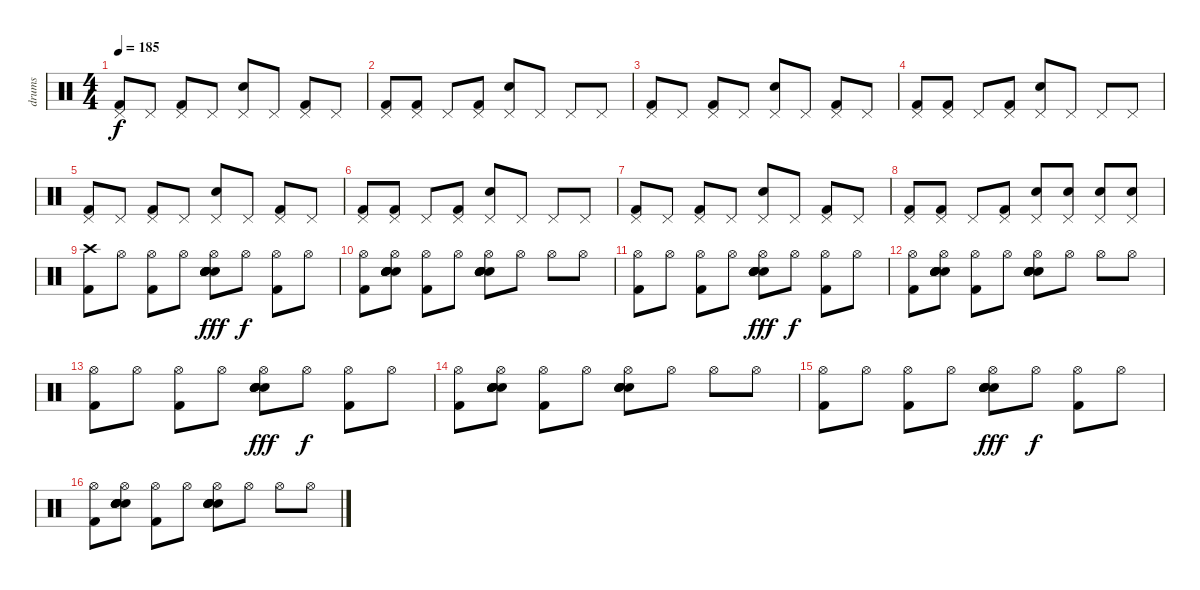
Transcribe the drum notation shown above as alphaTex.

\track ("drums" "drums") {instrument percussion}
\staff {score}
\articulation defaults
\ts (4 4)
\tempo 185
\clef neutral
\ks c
("Pedal Hi-Hat (hit)" "Kick (hit) 2").8{dy f} "Pedal Hi-Hat (hit)".8 ("Pedal Hi-Hat (hit)" "Kick (hit) 2").8 "Pedal Hi-Hat (hit)".8 ("Pedal Hi-Hat (hit)" "Electric Snare (hit)").8 "Pedal Hi-Hat (hit)".8 ("Pedal Hi-Hat (hit)" "Kick (hit) 2").8 "Pedal Hi-Hat (hit)".8 |
("Pedal Hi-Hat (hit)" "Kick (hit) 2").8 ("Pedal Hi-Hat (hit)" "Kick (hit) 2").8 "Pedal Hi-Hat (hit)".8 ("Pedal Hi-Hat (hit)" "Kick (hit) 2").8 ("Pedal Hi-Hat (hit)" "Electric Snare (hit)").8 "Pedal Hi-Hat (hit)".8 "Pedal Hi-Hat (hit)".8 "Pedal Hi-Hat (hit)".8 |
("Pedal Hi-Hat (hit)" "Kick (hit) 2").8 "Pedal Hi-Hat (hit)".8 ("Pedal Hi-Hat (hit)" "Kick (hit) 2").8 "Pedal Hi-Hat (hit)".8 ("Pedal Hi-Hat (hit)" "Electric Snare (hit)").8 "Pedal Hi-Hat (hit)".8 ("Pedal Hi-Hat (hit)" "Kick (hit) 2").8 "Pedal Hi-Hat (hit)".8 |
("Pedal Hi-Hat (hit)" "Kick (hit) 2").8 ("Pedal Hi-Hat (hit)" "Kick (hit) 2").8 "Pedal Hi-Hat (hit)".8 ("Pedal Hi-Hat (hit)" "Kick (hit) 2").8 ("Pedal Hi-Hat (hit)" "Electric Snare (hit)").8 "Pedal Hi-Hat (hit)".8 "Pedal Hi-Hat (hit)".8 "Pedal Hi-Hat (hit)".8 |
("Pedal Hi-Hat (hit)" "Kick (hit) 2").8 "Pedal Hi-Hat (hit)".8 ("Pedal Hi-Hat (hit)" "Kick (hit) 2").8 "Pedal Hi-Hat (hit)".8 ("Pedal Hi-Hat (hit)" "Electric Snare (hit)").8 "Pedal Hi-Hat (hit)".8 ("Pedal Hi-Hat (hit)" "Kick (hit) 2").8 "Pedal Hi-Hat (hit)".8 |
("Pedal Hi-Hat (hit)" "Kick (hit) 2").8 ("Pedal Hi-Hat (hit)" "Kick (hit) 2").8 "Pedal Hi-Hat (hit)".8 ("Pedal Hi-Hat (hit)" "Kick (hit) 2").8 ("Pedal Hi-Hat (hit)" "Electric Snare (hit)").8 "Pedal Hi-Hat (hit)".8 "Pedal Hi-Hat (hit)".8 "Pedal Hi-Hat (hit)".8 |
("Pedal Hi-Hat (hit)" "Kick (hit) 2").8 "Pedal Hi-Hat (hit)".8 ("Pedal Hi-Hat (hit)" "Kick (hit) 2").8 "Pedal Hi-Hat (hit)".8 ("Pedal Hi-Hat (hit)" "Electric Snare (hit)").8 "Pedal Hi-Hat (hit)".8 ("Pedal Hi-Hat (hit)" "Kick (hit) 2").8 "Pedal Hi-Hat (hit)".8 |
("Pedal Hi-Hat (hit)" "Kick (hit) 2").8 ("Pedal Hi-Hat (hit)" "Kick (hit) 2").8 "Pedal Hi-Hat (hit)".8 ("Pedal Hi-Hat (hit)" "Kick (hit) 2").8 ("Pedal Hi-Hat (hit)" "Electric Snare (hit)").8 ("Pedal Hi-Hat (hit)" "Electric Snare (hit)").8 ("Pedal Hi-Hat (hit)" "Electric Snare (hit)").8 ("Pedal Hi-Hat (hit)" "Electric Snare (hit)").8 |
("Crash high (hit)" "Kick (hit) 2").8 "Hi-Hat (open)".8 ("Hi-Hat (open)" "Kick (hit) 2").8 "Hi-Hat (open)".8 ("Hi-Hat (open)" "Electric Snare (hit)" "Electric Snare (hit)" "Electric Snare (hit)" "Electric Snare (hit)" "Electric Snare (hit)").8{dy fff} "Hi-Hat (open)".8{dy f} ("Hi-Hat (open)" "Kick (hit) 2").8 "Hi-Hat (open)".8 |
("Hi-Hat (open)" "Kick (hit) 2").8 ("Hi-Hat (open)" "Electric Snare (hit)" "Electric Snare (hit)" "Electric Snare (hit)" "Electric Snare (hit)" "Electric Snare (hit)").8 ("Hi-Hat (open)" "Kick (hit) 2").8 "Hi-Hat (open)".8 ("Hi-Hat (open)" "Electric Snare (hit)" "Electric Snare (hit)" "Electric Snare (hit)" "Electric Snare (hit)" "Electric Snare (hit)").8 "Hi-Hat (open)".8 "Hi-Hat (open)".8 "Hi-Hat (open)".8 |
("Hi-Hat (open)" "Kick (hit) 2").8 "Hi-Hat (open)".8 ("Hi-Hat (open)" "Kick (hit) 2").8 "Hi-Hat (open)".8 ("Hi-Hat (open)" "Electric Snare (hit)" "Electric Snare (hit)" "Electric Snare (hit)" "Electric Snare (hit)" "Electric Snare (hit)").8{dy fff} "Hi-Hat (open)".8{dy f} ("Hi-Hat (open)" "Kick (hit) 2").8 "Hi-Hat (open)".8 |
("Hi-Hat (open)" "Kick (hit) 2").8 ("Hi-Hat (open)" "Electric Snare (hit)" "Electric Snare (hit)" "Electric Snare (hit)" "Electric Snare (hit)" "Electric Snare (hit)").8 ("Hi-Hat (open)" "Kick (hit) 2").8 "Hi-Hat (open)".8 ("Hi-Hat (open)" "Electric Snare (hit)" "Electric Snare (hit)" "Electric Snare (hit)" "Electric Snare (hit)" "Electric Snare (hit)").8 "Hi-Hat (open)".8 "Hi-Hat (open)".8 "Hi-Hat (open)".8 |
("Hi-Hat (open)" "Kick (hit) 2").8 "Hi-Hat (open)".8 ("Hi-Hat (open)" "Kick (hit) 2").8 "Hi-Hat (open)".8 ("Hi-Hat (open)" "Electric Snare (hit)" "Electric Snare (hit)" "Electric Snare (hit)" "Electric Snare (hit)" "Electric Snare (hit)").8{dy fff} "Hi-Hat (open)".8{dy f} ("Hi-Hat (open)" "Kick (hit) 2").8 "Hi-Hat (open)".8 |
("Hi-Hat (open)" "Kick (hit) 2").8 ("Hi-Hat (open)" "Electric Snare (hit)" "Electric Snare (hit)" "Electric Snare (hit)" "Electric Snare (hit)" "Electric Snare (hit)").8 ("Hi-Hat (open)" "Kick (hit) 2").8 "Hi-Hat (open)".8 ("Hi-Hat (open)" "Electric Snare (hit)" "Electric Snare (hit)" "Electric Snare (hit)" "Electric Snare (hit)" "Electric Snare (hit)").8 "Hi-Hat (open)".8 "Hi-Hat (open)".8 "Hi-Hat (open)".8 |
("Hi-Hat (open)" "Kick (hit) 2").8 "Hi-Hat (open)".8 ("Hi-Hat (open)" "Kick (hit) 2").8 "Hi-Hat (open)".8 ("Hi-Hat (open)" "Electric Snare (hit)" "Electric Snare (hit)" "Electric Snare (hit)" "Electric Snare (hit)" "Electric Snare (hit)").8{dy fff} "Hi-Hat (open)".8{dy f} ("Hi-Hat (open)" "Kick (hit) 2").8 "Hi-Hat (open)".8 |
("Hi-Hat (open)" "Kick (hit) 2").8 ("Hi-Hat (open)" "Electric Snare (hit)" "Electric Snare (hit)" "Electric Snare (hit)" "Electric Snare (hit)" "Electric Snare (hit)").8 ("Hi-Hat (open)" "Kick (hit) 2").8 "Hi-Hat (open)".8 ("Hi-Hat (open)" "Electric Snare (hit)" "Electric Snare (hit)" "Electric Snare (hit)" "Electric Snare (hit)" "Electric Snare (hit)").8 "Hi-Hat (open)".8 "Hi-Hat (open)".8 "Hi-Hat (open)".8
